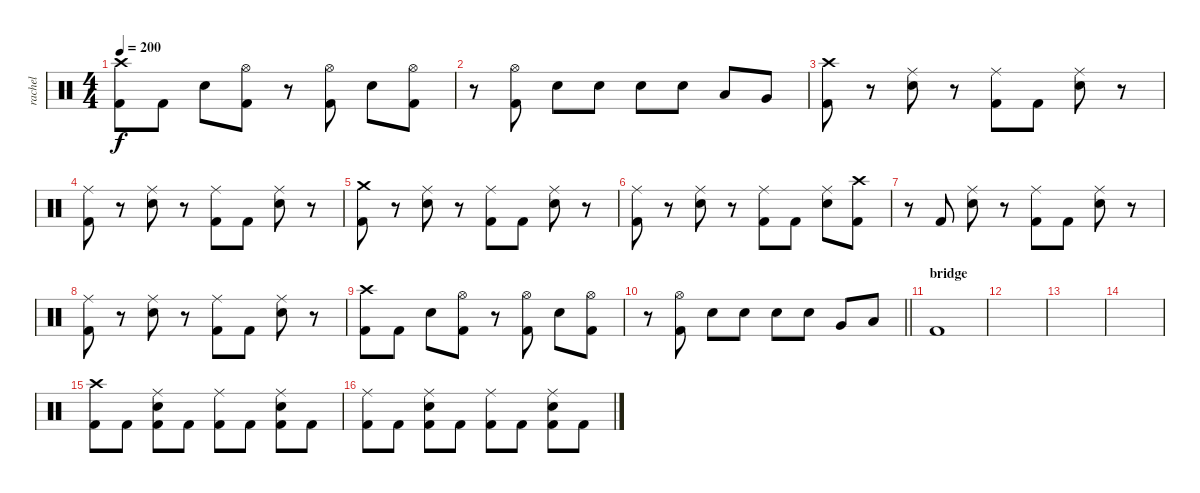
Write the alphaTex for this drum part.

\track ("rachel" "rachel") {instrument percussion}
\staff {score}
\articulation defaults
\ts (4 4)
\tempo 200
\clef neutral
\ks c
("Crash high (hit)" "Kick (hit) 2").8{dy f} "Kick (hit) 2".8 "Electric Snare (hit)".8 ("Hi-Hat (open)" "Kick (hit) 2").8 r.8 ("Hi-Hat (open)" "Kick (hit) 2").8 "Electric Snare (hit)".8 ("Hi-Hat (open)" "Kick (hit) 2").8 |
r.8 ("Hi-Hat (open)" "Kick (hit) 2").8 "Electric Snare (hit)".8 "Electric Snare (hit)".8 "Electric Snare (hit)".8 "Electric Snare (hit)".8 "Low Tom (hit)".8 "Very Low Tom (hit)".8 |
("Crash high (hit)" "Kick (hit) 2").8 r.8 ("Ride (middle)" "Electric Snare (hit)").8 r.8 ("Ride (middle)" "Kick (hit) 2").8 "Kick (hit) 2".8 ("Ride (middle)" "Electric Snare (hit)").8 r.8 |
("Ride (middle)" "Kick (hit) 2").8 r.8 ("Ride (middle)" "Electric Snare (hit)").8 r.8 ("Ride (middle)" "Kick (hit) 2").8 "Kick (hit) 2".8 ("Ride (middle)" "Electric Snare (hit)").8 r.8 |
("Crash medium (hit)" "Kick (hit) 2").8 r.8 ("Ride (middle)" "Electric Snare (hit)").8 r.8 ("Ride (middle)" "Kick (hit) 2").8 "Kick (hit) 2".8 ("Ride (middle)" "Electric Snare (hit)").8 r.8 |
("Ride (middle)" "Kick (hit) 2").8 r.8 ("Ride (middle)" "Electric Snare (hit)").8 r.8 ("Ride (middle)" "Kick (hit) 2").8 "Kick (hit) 2".8 ("Ride (middle)" "Electric Snare (hit)").8 ("Crash high (hit)" "Kick (hit) 2").8 |
r.8 "Kick (hit) 2".8 ("Ride (middle)" "Electric Snare (hit)").8 r.8 ("Ride (middle)" "Kick (hit) 2").8 "Kick (hit) 2".8 ("Ride (middle)" "Electric Snare (hit)").8 r.8 |
("Ride (middle)" "Kick (hit) 2").8 r.8 ("Ride (middle)" "Electric Snare (hit)").8 r.8 ("Ride (middle)" "Kick (hit) 2").8 "Kick (hit) 2".8 ("Ride (middle)" "Electric Snare (hit)").8 r.8 |
("Crash high (hit)" "Kick (hit) 2").8 "Kick (hit) 2".8 "Electric Snare (hit)".8 ("Hi-Hat (open)" "Kick (hit) 2").8 r.8 ("Hi-Hat (open)" "Kick (hit) 2").8 "Electric Snare (hit)".8 ("Hi-Hat (open)" "Kick (hit) 2").8 |
\barLineRight lightlight
r.8 ("Hi-Hat (open)" "Kick (hit) 2").8 "Electric Snare (hit)".8 "Electric Snare (hit)".8 "Electric Snare (hit)".8 "Electric Snare (hit)".8 "Very Low Tom (hit)".8 "Low Floor Tom (hit)".8 |
\section ("" "bridge")
"Kick (hit) 2".1 |
|
|
|
("Crash high (hit)" "Kick (hit) 2").8 "Kick (hit) 2".8 ("Ride (middle)" "Electric Snare (hit)" "Kick (hit) 2").8 "Kick (hit) 2".8 ("Ride (middle)" "Kick (hit) 2").8 "Kick (hit) 2".8 ("Ride (middle)" "Electric Snare (hit)" "Kick (hit) 2").8 "Kick (hit) 2".8 |
("Ride (middle)" "Kick (hit) 2").8 "Kick (hit) 2".8 ("Ride (middle)" "Electric Snare (hit)" "Kick (hit) 2").8 "Kick (hit) 2".8 ("Ride (middle)" "Kick (hit) 2").8 "Kick (hit) 2".8 ("Ride (middle)" "Electric Snare (hit)" "Kick (hit) 2").8 "Kick (hit) 2".8
